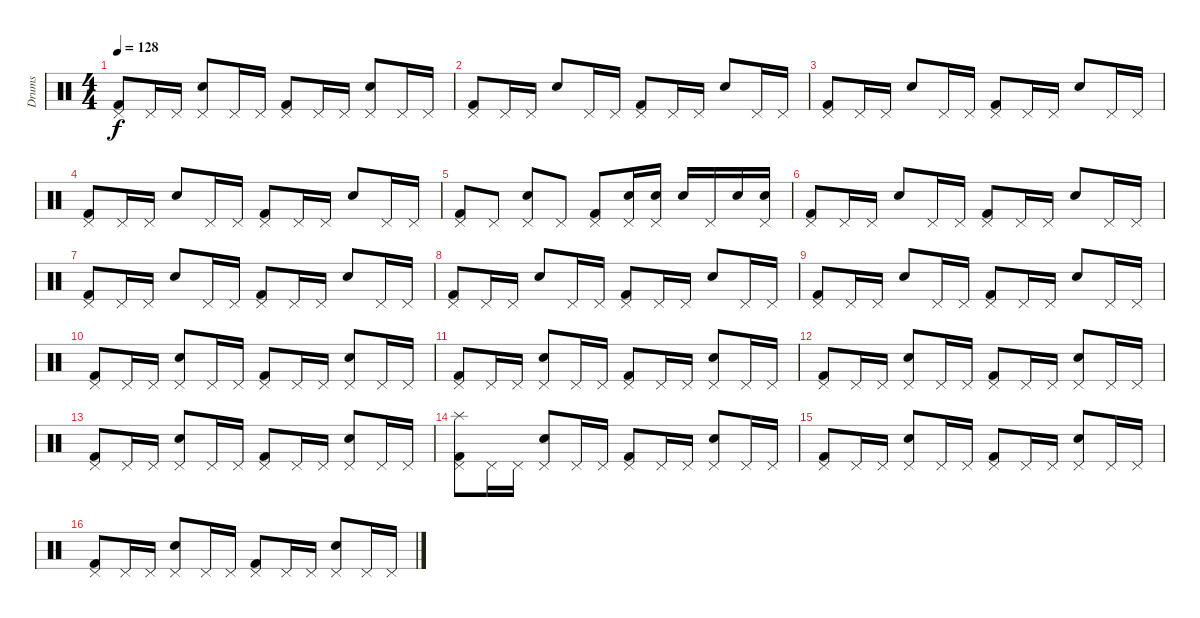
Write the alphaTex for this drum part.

\track ("Drums" "Drums") {instrument percussion}
\staff {score}
\articulation defaults
\ts (4 4)
\tempo 128
\clef neutral
\ks c
("Pedal Hi-Hat (hit)" "Kick (hit) 2").8{dy f} "Pedal Hi-Hat (hit)".16 "Pedal Hi-Hat (hit)".16 ("Pedal Hi-Hat (hit)" "Snare (hit) 2").8 "Pedal Hi-Hat (hit)".16 "Pedal Hi-Hat (hit)".16 ("Pedal Hi-Hat (hit)" "Kick (hit) 2").8 "Pedal Hi-Hat (hit)".16 "Pedal Hi-Hat (hit)".16 ("Pedal Hi-Hat (hit)" "Snare (hit) 2").8 "Pedal Hi-Hat (hit)".16 "Pedal Hi-Hat (hit)".16 |
("Pedal Hi-Hat (hit)" "Kick (hit) 2").8 "Pedal Hi-Hat (hit)".16 "Pedal Hi-Hat (hit)".16 "Snare (hit) 2".8 "Pedal Hi-Hat (hit)".16 "Pedal Hi-Hat (hit)".16 ("Pedal Hi-Hat (hit)" "Kick (hit) 2").8 "Pedal Hi-Hat (hit)".16 "Pedal Hi-Hat (hit)".16 "Snare (hit) 2".8 "Pedal Hi-Hat (hit)".16 "Pedal Hi-Hat (hit)".16 |
("Pedal Hi-Hat (hit)" "Kick (hit) 2").8 "Pedal Hi-Hat (hit)".16 "Pedal Hi-Hat (hit)".16 "Snare (hit) 2".8 "Pedal Hi-Hat (hit)".16 "Pedal Hi-Hat (hit)".16 ("Pedal Hi-Hat (hit)" "Kick (hit) 2").8 "Pedal Hi-Hat (hit)".16 "Pedal Hi-Hat (hit)".16 "Snare (hit) 2".8 "Pedal Hi-Hat (hit)".16 "Pedal Hi-Hat (hit)".16 |
("Pedal Hi-Hat (hit)" "Kick (hit) 2").8 "Pedal Hi-Hat (hit)".16 "Pedal Hi-Hat (hit)".16 "Snare (hit) 2".8 "Pedal Hi-Hat (hit)".16 "Pedal Hi-Hat (hit)".16 ("Pedal Hi-Hat (hit)" "Kick (hit) 2").8 "Pedal Hi-Hat (hit)".16 "Pedal Hi-Hat (hit)".16 "Snare (hit) 2".8 "Pedal Hi-Hat (hit)".16 "Pedal Hi-Hat (hit)".16 |
("Pedal Hi-Hat (hit)" "Kick (hit) 2").8{volume 12} "Pedal Hi-Hat (hit)".8 ("Pedal Hi-Hat (hit)" "Snare (hit) 2").8 "Pedal Hi-Hat (hit)".8 ("Pedal Hi-Hat (hit)" "Kick (hit) 2").8 ("Pedal Hi-Hat (hit)" "Snare (hit) 2").16 ("Pedal Hi-Hat (hit)" "Snare (hit) 2").16 "Snare (hit) 2".16 "Pedal Hi-Hat (hit)".16 "Snare (hit) 2".16 ("Pedal Hi-Hat (hit)" "Snare (hit) 2").16 |
("Pedal Hi-Hat (hit)" "Kick (hit) 2").8{volume 11} "Pedal Hi-Hat (hit)".16 "Pedal Hi-Hat (hit)".16 "Snare (hit) 2".8 "Pedal Hi-Hat (hit)".16 "Pedal Hi-Hat (hit)".16 ("Pedal Hi-Hat (hit)" "Kick (hit) 2").8 "Pedal Hi-Hat (hit)".16 "Pedal Hi-Hat (hit)".16 "Snare (hit) 2".8 "Pedal Hi-Hat (hit)".16 "Pedal Hi-Hat (hit)".16 |
("Pedal Hi-Hat (hit)" "Kick (hit) 2").8 "Pedal Hi-Hat (hit)".16 "Pedal Hi-Hat (hit)".16 "Snare (hit) 2".8 "Pedal Hi-Hat (hit)".16 "Pedal Hi-Hat (hit)".16 ("Pedal Hi-Hat (hit)" "Kick (hit) 2").8 "Pedal Hi-Hat (hit)".16 "Pedal Hi-Hat (hit)".16 "Snare (hit) 2".8 "Pedal Hi-Hat (hit)".16 "Pedal Hi-Hat (hit)".16 |
("Pedal Hi-Hat (hit)" "Kick (hit) 2").8 "Pedal Hi-Hat (hit)".16 "Pedal Hi-Hat (hit)".16 "Snare (hit) 2".8 "Pedal Hi-Hat (hit)".16 "Pedal Hi-Hat (hit)".16 ("Pedal Hi-Hat (hit)" "Kick (hit) 2").8 "Pedal Hi-Hat (hit)".16 "Pedal Hi-Hat (hit)".16 "Snare (hit) 2".8 "Pedal Hi-Hat (hit)".16 "Pedal Hi-Hat (hit)".16 |
("Pedal Hi-Hat (hit)" "Kick (hit) 2").8 "Pedal Hi-Hat (hit)".16 "Pedal Hi-Hat (hit)".16 "Snare (hit) 2".8 "Pedal Hi-Hat (hit)".16 "Pedal Hi-Hat (hit)".16 ("Pedal Hi-Hat (hit)" "Kick (hit) 2").8 "Pedal Hi-Hat (hit)".16 "Pedal Hi-Hat (hit)".16 "Snare (hit) 2".8 "Pedal Hi-Hat (hit)".16 "Pedal Hi-Hat (hit)".16 |
("Pedal Hi-Hat (hit)" "Kick (hit) 2").8 "Pedal Hi-Hat (hit)".16 "Pedal Hi-Hat (hit)".16 ("Pedal Hi-Hat (hit)" "Snare (hit) 2").8 "Pedal Hi-Hat (hit)".16 "Pedal Hi-Hat (hit)".16 ("Pedal Hi-Hat (hit)" "Kick (hit) 2").8 "Pedal Hi-Hat (hit)".16 "Pedal Hi-Hat (hit)".16 ("Pedal Hi-Hat (hit)" "Snare (hit) 2").8 "Pedal Hi-Hat (hit)".16 "Pedal Hi-Hat (hit)".16 |
("Pedal Hi-Hat (hit)" "Kick (hit) 2").8 "Pedal Hi-Hat (hit)".16 "Pedal Hi-Hat (hit)".16 ("Pedal Hi-Hat (hit)" "Snare (hit) 2").8 "Pedal Hi-Hat (hit)".16 "Pedal Hi-Hat (hit)".16 ("Pedal Hi-Hat (hit)" "Kick (hit) 2").8 "Pedal Hi-Hat (hit)".16 "Pedal Hi-Hat (hit)".16 ("Pedal Hi-Hat (hit)" "Snare (hit) 2").8 "Pedal Hi-Hat (hit)".16 "Pedal Hi-Hat (hit)".16 |
("Pedal Hi-Hat (hit)" "Kick (hit) 2").8 "Pedal Hi-Hat (hit)".16 "Pedal Hi-Hat (hit)".16 ("Pedal Hi-Hat (hit)" "Snare (hit) 2").8 "Pedal Hi-Hat (hit)".16 "Pedal Hi-Hat (hit)".16 ("Pedal Hi-Hat (hit)" "Kick (hit) 2").8 "Pedal Hi-Hat (hit)".16 "Pedal Hi-Hat (hit)".16 ("Pedal Hi-Hat (hit)" "Snare (hit) 2").8 "Pedal Hi-Hat (hit)".16 "Pedal Hi-Hat (hit)".16 |
("Pedal Hi-Hat (hit)" "Kick (hit) 2").8 "Pedal Hi-Hat (hit)".16 "Pedal Hi-Hat (hit)".16 ("Pedal Hi-Hat (hit)" "Snare (hit) 2").8 "Pedal Hi-Hat (hit)".16 "Pedal Hi-Hat (hit)".16 ("Pedal Hi-Hat (hit)" "Kick (hit) 2").8 "Pedal Hi-Hat (hit)".16 "Pedal Hi-Hat (hit)".16 ("Pedal Hi-Hat (hit)" "Snare (hit) 2").8 "Pedal Hi-Hat (hit)".16 "Pedal Hi-Hat (hit)".16 |
("Splash (hit)" "Pedal Hi-Hat (hit)" "Kick (hit) 2").8{volume 11} "Pedal Hi-Hat (hit)".16 "Pedal Hi-Hat (hit)".16 ("Pedal Hi-Hat (hit)" "Snare (hit) 2").8 "Pedal Hi-Hat (hit)".16 "Pedal Hi-Hat (hit)".16 ("Pedal Hi-Hat (hit)" "Kick (hit) 2").8 "Pedal Hi-Hat (hit)".16 "Pedal Hi-Hat (hit)".16 ("Pedal Hi-Hat (hit)" "Snare (hit) 2").8 "Pedal Hi-Hat (hit)".16 "Pedal Hi-Hat (hit)".16 |
("Pedal Hi-Hat (hit)" "Kick (hit) 2").8 "Pedal Hi-Hat (hit)".16 "Pedal Hi-Hat (hit)".16 ("Pedal Hi-Hat (hit)" "Snare (hit) 2").8 "Pedal Hi-Hat (hit)".16 "Pedal Hi-Hat (hit)".16 ("Pedal Hi-Hat (hit)" "Kick (hit) 2").8 "Pedal Hi-Hat (hit)".16 "Pedal Hi-Hat (hit)".16 ("Pedal Hi-Hat (hit)" "Snare (hit) 2").8 "Pedal Hi-Hat (hit)".16 "Pedal Hi-Hat (hit)".16 |
("Pedal Hi-Hat (hit)" "Kick (hit) 2").8 "Pedal Hi-Hat (hit)".16 "Pedal Hi-Hat (hit)".16 ("Pedal Hi-Hat (hit)" "Snare (hit) 2").8 "Pedal Hi-Hat (hit)".16 "Pedal Hi-Hat (hit)".16 ("Pedal Hi-Hat (hit)" "Kick (hit) 2").8 "Pedal Hi-Hat (hit)".16 "Pedal Hi-Hat (hit)".16 ("Pedal Hi-Hat (hit)" "Snare (hit) 2").8 "Pedal Hi-Hat (hit)".16 "Pedal Hi-Hat (hit)".16
